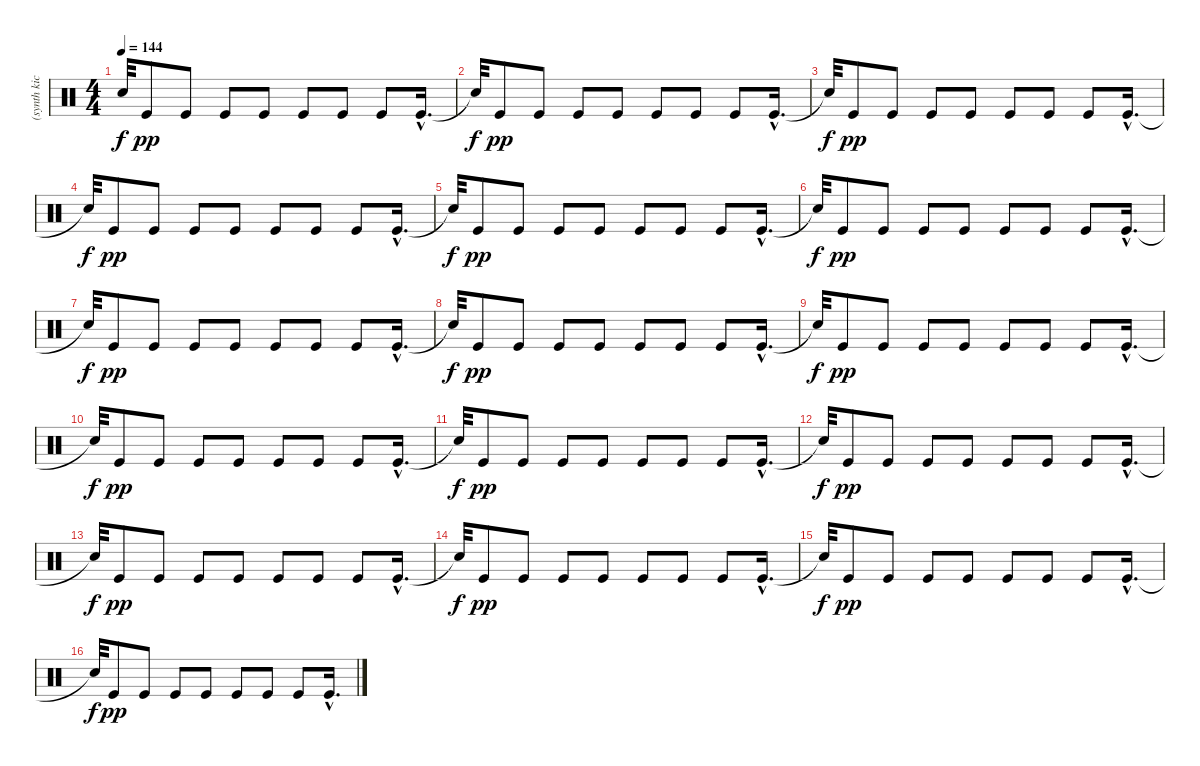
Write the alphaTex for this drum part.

\track ("(synth kick loop reverb)" "(synth kic") {instrument percussion}
\staff {score}
\articulation defaults
\ts (4 4)
\tempo 144
\clef neutral
\ks c "Snare (hit)"{t}.32{dy f} "Kick (hit)".8{dy pp} "Kick (hit)".8 "Kick (hit)".8 "Kick (hit)".8 "Kick (hit)".8 "Kick (hit)".8 "Kick (hit)".8 "Kick (hit)"{hac}.16{d}
|
"Snare (hit)"{t}.32{dy f} "Kick (hit)".8{dy pp} "Kick (hit)".8 "Kick (hit)".8 "Kick (hit)".8 "Kick (hit)".8 "Kick (hit)".8 "Kick (hit)".8 "Kick (hit)"{hac}.16{d} |
"Snare (hit)"{t}.32{dy f} "Kick (hit)".8{dy pp} "Kick (hit)".8 "Kick (hit)".8 "Kick (hit)".8 "Kick (hit)".8 "Kick (hit)".8 "Kick (hit)".8 "Kick (hit)"{hac}.16{d} |
"Snare (hit)"{t}.32{dy f} "Kick (hit)".8{dy pp} "Kick (hit)".8 "Kick (hit)".8 "Kick (hit)".8 "Kick (hit)".8 "Kick (hit)".8 "Kick (hit)".8 "Kick (hit)"{hac}.16{d} |
"Snare (hit)"{t}.32{dy f} "Kick (hit)".8{dy pp} "Kick (hit)".8 "Kick (hit)".8 "Kick (hit)".8 "Kick (hit)".8 "Kick (hit)".8 "Kick (hit)".8 "Kick (hit)"{hac}.16{d} |
"Snare (hit)"{t}.32{dy f} "Kick (hit)".8{dy pp} "Kick (hit)".8 "Kick (hit)".8 "Kick (hit)".8 "Kick (hit)".8 "Kick (hit)".8 "Kick (hit)".8 "Kick (hit)"{hac}.16{d} |
"Snare (hit)"{t}.32{dy f} "Kick (hit)".8{dy pp} "Kick (hit)".8 "Kick (hit)".8 "Kick (hit)".8 "Kick (hit)".8 "Kick (hit)".8 "Kick (hit)".8 "Kick (hit)"{hac}.16{d} |
"Snare (hit)"{t}.32{dy f} "Kick (hit)".8{dy pp} "Kick (hit)".8 "Kick (hit)".8 "Kick (hit)".8 "Kick (hit)".8 "Kick (hit)".8 "Kick (hit)".8 "Kick (hit)"{hac}.16{d} |
"Snare (hit)"{t}.32{dy f} "Kick (hit)".8{dy pp} "Kick (hit)".8 "Kick (hit)".8 "Kick (hit)".8 "Kick (hit)".8 "Kick (hit)".8 "Kick (hit)".8 "Kick (hit)"{hac}.16{d} |
"Snare (hit)"{t}.32{dy f} "Kick (hit)".8{dy pp} "Kick (hit)".8 "Kick (hit)".8 "Kick (hit)".8 "Kick (hit)".8 "Kick (hit)".8 "Kick (hit)".8 "Kick (hit)"{hac}.16{d} |
"Snare (hit)"{t}.32{dy f} "Kick (hit)".8{dy pp} "Kick (hit)".8 "Kick (hit)".8 "Kick (hit)".8 "Kick (hit)".8 "Kick (hit)".8 "Kick (hit)".8 "Kick (hit)"{hac}.16{d} |
"Snare (hit)"{t}.32{dy f} "Kick (hit)".8{dy pp} "Kick (hit)".8 "Kick (hit)".8 "Kick (hit)".8 "Kick (hit)".8 "Kick (hit)".8 "Kick (hit)".8 "Kick (hit)"{hac}.16{d} |
"Snare (hit)"{t}.32{dy f} "Kick (hit)".8{dy pp} "Kick (hit)".8 "Kick (hit)".8 "Kick (hit)".8 "Kick (hit)".8 "Kick (hit)".8 "Kick (hit)".8 "Kick (hit)"{hac}.16{d} |
"Snare (hit)"{t}.32{dy f} "Kick (hit)".8{dy pp} "Kick (hit)".8 "Kick (hit)".8 "Kick (hit)".8 "Kick (hit)".8 "Kick (hit)".8 "Kick (hit)".8 "Kick (hit)"{hac}.16{d} |
"Snare (hit)"{t}.32{dy f} "Kick (hit)".8{dy pp} "Kick (hit)".8 "Kick (hit)".8 "Kick (hit)".8 "Kick (hit)".8 "Kick (hit)".8 "Kick (hit)".8 "Kick (hit)"{hac}.16{d} |
"Snare (hit)"{t}.32{dy f} "Kick (hit)".8{dy pp} "Kick (hit)".8 "Kick (hit)".8 "Kick (hit)".8 "Kick (hit)".8 "Kick (hit)".8 "Kick (hit)".8 "Kick (hit)"{hac}.16{d}
